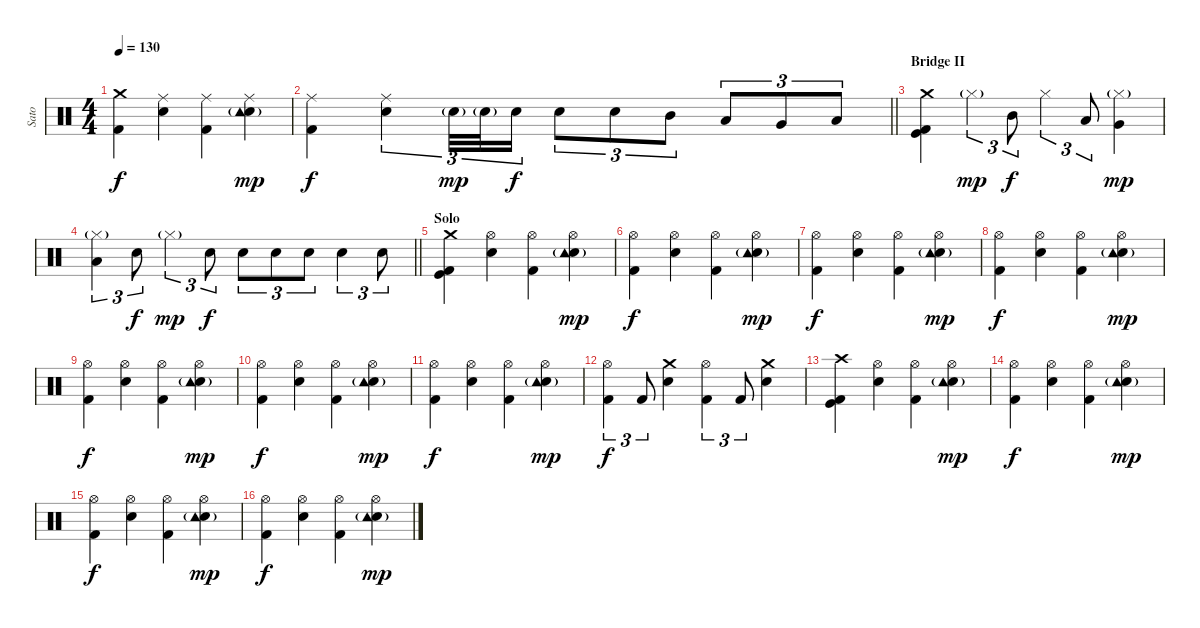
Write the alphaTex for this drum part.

\track ("Sato" "Sato") {instrument percussion}
\staff {score}
\articulation defaults
\ts (4 4)
\tempo 130
\clef neutral
\ks c
("Crash medium (hit)" "Kick (hit) 2").4{dy f} ("Ride (middle)" "Electric Snare (hit)").4 ("Ride (middle)" "Kick (hit) 2").4 ("Ride (middle)" "Electric Snare (hit)" "Tambourine (hit)"{g}).4{dy mp} |
\barLineRight lightlight
("Ride (middle)" "Kick (hit) 2").4{dy f} ("Ride (middle)" "Electric Snare (hit)").4{tu (3 2)} "Electric Snare (hit)"{g}.32{tu (3 2) dy mp} "Electric Snare (hit)"{g}.32{tu (3 2)} "Electric Snare (hit)".16{tu (3 2) dy f} "Electric Snare (hit)".8{tu (3 2)} "Electric Snare (hit)".8{tu (3 2)} "Mid Tom (hit)".8{tu (3 2)} "Low Tom (hit)".8{tu (3 2)} "Very Low Tom (hit)".8{tu (3 2)} "Low Floor Tom (hit)".8{tu (3 2)} |
\section ("" "Bridge II")
("Crash medium (hit)" "Kick (hit)" "Kick (hit) 2").4 "Hi-Hat (closed)"{g}.4{tu (3 2) dy mp} "Mid Tom (hit)".8{tu (3 2) dy f} "Hi-Hat (closed)".4{tu (3 2)} "Low Tom (hit)".8{tu (3 2)} ("Very Low Tom (hit)" "Hi-Hat (closed)"{g}).4{dy mp} |
\barLineRight lightlight
("Hi-Hat (closed)"{g} "Low Floor Tom (hit)").4{tu (3 2)} "Electric Snare (hit)".8{tu (3 2) dy f} "Hi-Hat (closed)"{g}.4{tu (3 2) dy mp} "Electric Snare (hit)".8{tu (3 2) dy f} "Electric Snare (hit)".8{tu (3 2)} "Electric Snare (hit)".8{tu (3 2)} "Electric Snare (hit)".8{tu (3 2)} "Electric Snare (hit)".4{tu (3 2)} "Electric Snare (hit)".8{tu (3 2)} |
\section ("" "Solo")
("Crash medium (hit)" "Kick (hit) 2" "Kick (hit)").4 ("Hi-Hat (open)" "Electric Snare (hit)").4 ("Hi-Hat (open)" "Kick (hit) 2").4 ("Hi-Hat (open)" "Electric Snare (hit)" "Tambourine (hit)"{g}).4{dy mp} |
("Hi-Hat (open)" "Kick (hit) 2").4{dy f} ("Hi-Hat (open)" "Electric Snare (hit)").4 ("Hi-Hat (open)" "Kick (hit) 2").4 ("Hi-Hat (open)" "Electric Snare (hit)" "Tambourine (hit)"{g}).4{dy mp} |
("Hi-Hat (open)" "Kick (hit) 2").4{dy f} ("Hi-Hat (open)" "Electric Snare (hit)").4 ("Hi-Hat (open)" "Kick (hit) 2").4 ("Hi-Hat (open)" "Electric Snare (hit)" "Tambourine (hit)"{g}).4{dy mp} |
("Hi-Hat (open)" "Kick (hit) 2").4{dy f} ("Hi-Hat (open)" "Electric Snare (hit)").4 ("Hi-Hat (open)" "Kick (hit) 2").4 ("Hi-Hat (open)" "Electric Snare (hit)" "Tambourine (hit)"{g}).4{dy mp} |
("Hi-Hat (open)" "Kick (hit) 2").4{dy f} ("Hi-Hat (open)" "Electric Snare (hit)").4 ("Hi-Hat (open)" "Kick (hit) 2").4 ("Hi-Hat (open)" "Electric Snare (hit)" "Tambourine (hit)"{g}).4{dy mp} |
("Hi-Hat (open)" "Kick (hit) 2").4{dy f} ("Hi-Hat (open)" "Electric Snare (hit)").4 ("Hi-Hat (open)" "Kick (hit) 2").4 ("Hi-Hat (open)" "Electric Snare (hit)" "Tambourine (hit)"{g}).4{dy mp} |
("Hi-Hat (open)" "Kick (hit) 2").4{dy f} ("Hi-Hat (open)" "Electric Snare (hit)").4 ("Hi-Hat (open)" "Kick (hit) 2").4 ("Hi-Hat (open)" "Electric Snare (hit)" "Tambourine (hit)"{g}).4{dy mp} |
("Hi-Hat (open)" "Kick (hit) 2").4{tu (3 2) dy f} "Kick (hit) 2".8{tu (3 2)} ("Crash medium (hit)" "Electric Snare (hit)").4 ("Hi-Hat (open)" "Kick (hit) 2").4{tu (3 2)} "Kick (hit) 2".8{tu (3 2)} ("Crash medium (hit)" "Electric Snare (hit)").4 |
("Crash high (hit)" "Kick (hit) 2" "Kick (hit)").4 ("Hi-Hat (open)" "Electric Snare (hit)").4 ("Hi-Hat (open)" "Kick (hit) 2").4 ("Hi-Hat (open)" "Electric Snare (hit)" "Tambourine (hit)"{g}).4{dy mp} |
("Hi-Hat (open)" "Kick (hit) 2").4{dy f} ("Hi-Hat (open)" "Electric Snare (hit)").4 ("Hi-Hat (open)" "Kick (hit) 2").4 ("Hi-Hat (open)" "Electric Snare (hit)" "Tambourine (hit)"{g}).4{dy mp} |
("Hi-Hat (open)" "Kick (hit) 2").4{dy f} ("Hi-Hat (open)" "Electric Snare (hit)").4 ("Hi-Hat (open)" "Kick (hit) 2").4 ("Hi-Hat (open)" "Electric Snare (hit)" "Tambourine (hit)"{g}).4{dy mp} |
("Hi-Hat (open)" "Kick (hit) 2").4{dy f} ("Hi-Hat (open)" "Electric Snare (hit)").4 ("Hi-Hat (open)" "Kick (hit) 2").4 ("Hi-Hat (open)" "Electric Snare (hit)" "Tambourine (hit)"{g}).4{dy mp}
